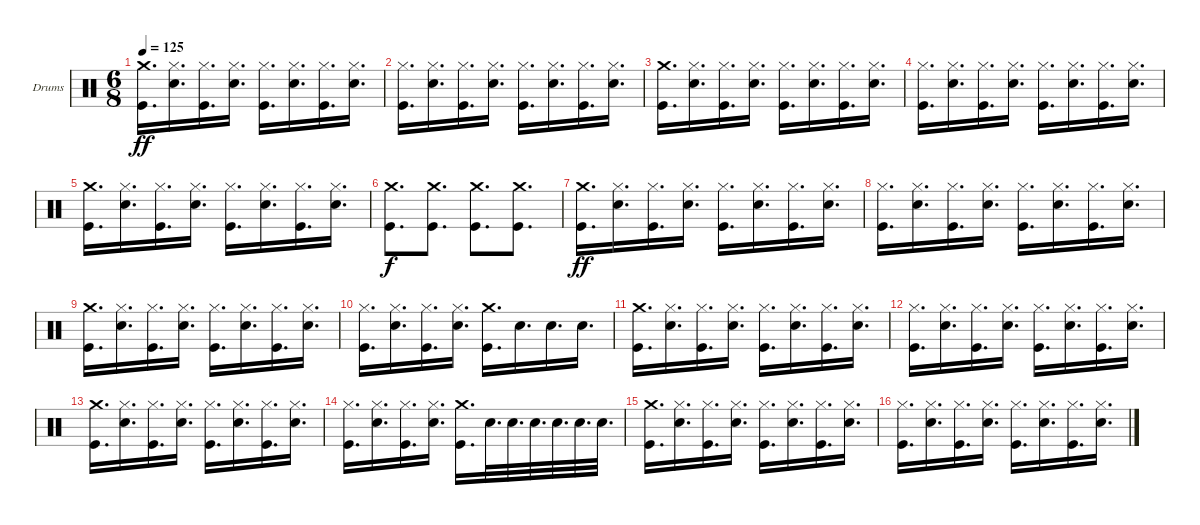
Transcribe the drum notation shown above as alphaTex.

\defaultSystemsLayout 4
\bracketExtendMode groupsimilarinstruments
\firstSystemTrackNameOrientation horizontal
\otherSystemsTrackNameOrientation horizontal
\track ("Drumkit" "Drums") {instrument percussion}
\staff {score}
\articulation defaults
\ts (6 8)
\tempo 125
\clef neutral
\ks c
("Kick (hit)" "Crash medium (hit)").16{d dy ff} ("Snare (hit) 2" "Hi-Hat (closed)").16{d} ("Kick (hit)" "Hi-Hat (closed)").16{d} ("Snare (hit) 2" "Hi-Hat (closed)").16{d} ("Kick (hit)" "Hi-Hat (closed)").16{d} ("Snare (hit) 2" "Hi-Hat (closed)").16{d} ("Kick (hit)" "Hi-Hat (closed)").16{d} ("Snare (hit) 2" "Hi-Hat (closed)").16{d} |
("Kick (hit)" "Hi-Hat (closed)").16{d} ("Snare (hit) 2" "Hi-Hat (closed)").16{d} ("Kick (hit)" "Hi-Hat (closed)").16{d} ("Snare (hit) 2" "Hi-Hat (closed)").16{d} ("Kick (hit)" "Hi-Hat (closed)").16{d} ("Snare (hit) 2" "Hi-Hat (closed)").16{d} ("Kick (hit)" "Hi-Hat (closed)").16{d} ("Snare (hit) 2" "Hi-Hat (closed)").16{d} |
("Kick (hit)" "Crash medium (hit)").16{d} ("Snare (hit) 2" "Hi-Hat (closed)").16{d} ("Kick (hit)" "Hi-Hat (closed)").16{d} ("Snare (hit) 2" "Hi-Hat (closed)").16{d} ("Kick (hit)" "Hi-Hat (closed)").16{d} ("Snare (hit) 2" "Hi-Hat (closed)").16{d} ("Kick (hit)" "Hi-Hat (closed)").16{d} ("Snare (hit) 2" "Hi-Hat (closed)").16{d} |
("Kick (hit)" "Hi-Hat (closed)").16{d} ("Snare (hit) 2" "Hi-Hat (closed)").16{d} ("Kick (hit)" "Hi-Hat (closed)").16{d} ("Snare (hit) 2" "Hi-Hat (closed)").16{d} ("Kick (hit)" "Hi-Hat (closed)").16{d} ("Snare (hit) 2" "Hi-Hat (closed)").16{d} ("Kick (hit)" "Hi-Hat (closed)").16{d} ("Snare (hit) 2" "Hi-Hat (closed)").16{d} |
("Kick (hit)" "Crash medium (hit)").16{d} ("Snare (hit) 2" "Hi-Hat (closed)").16{d} ("Kick (hit)" "Hi-Hat (closed)").16{d} ("Snare (hit) 2" "Hi-Hat (closed)").16{d} ("Kick (hit)" "Hi-Hat (closed)").16{d} ("Snare (hit) 2" "Hi-Hat (closed)").16{d} ("Kick (hit)" "Hi-Hat (closed)").16{d} ("Snare (hit) 2" "Hi-Hat (closed)").16{d} |
("Kick (hit)" "Crash medium (hit)").8{d dy f} ("Kick (hit)" "Crash medium (hit)").8{d} ("Kick (hit)" "Crash medium (hit)").8{d} ("Kick (hit)" "Crash medium (hit)").8{d} |
("Kick (hit)" "Crash medium (hit)").16{d dy ff} ("Snare (hit) 2" "Hi-Hat (closed)").16{d} ("Kick (hit)" "Hi-Hat (closed)").16{d} ("Snare (hit) 2" "Hi-Hat (closed)").16{d} ("Kick (hit)" "Hi-Hat (closed)").16{d} ("Snare (hit) 2" "Hi-Hat (closed)").16{d} ("Kick (hit)" "Hi-Hat (closed)").16{d} ("Snare (hit) 2" "Hi-Hat (closed)").16{d} |
("Kick (hit)" "Hi-Hat (closed)").16{d} ("Snare (hit) 2" "Hi-Hat (closed)").16{d} ("Kick (hit)" "Hi-Hat (closed)").16{d} ("Snare (hit) 2" "Hi-Hat (closed)").16{d} ("Kick (hit)" "Hi-Hat (closed)").16{d} ("Snare (hit) 2" "Hi-Hat (closed)").16{d} ("Kick (hit)" "Hi-Hat (closed)").16{d} ("Snare (hit) 2" "Hi-Hat (closed)").16{d} |
("Kick (hit)" "Crash medium (hit)").16{d} ("Snare (hit) 2" "Hi-Hat (closed)").16{d} ("Kick (hit)" "Hi-Hat (closed)").16{d} ("Snare (hit) 2" "Hi-Hat (closed)").16{d} ("Kick (hit)" "Hi-Hat (closed)").16{d} ("Snare (hit) 2" "Hi-Hat (closed)").16{d} ("Kick (hit)" "Hi-Hat (closed)").16{d} ("Snare (hit) 2" "Hi-Hat (closed)").16{d} |
("Kick (hit)" "Hi-Hat (closed)").16{d} ("Snare (hit) 2" "Hi-Hat (closed)").16{d} ("Kick (hit)" "Hi-Hat (closed)").16{d} ("Snare (hit) 2" "Hi-Hat (closed)").16{d} ("Kick (hit)" "Crash medium (hit)").16{d} "Snare (hit) 2".16{d} "Snare (hit) 2".16{d} "Snare (hit) 2".16{d} |
("Kick (hit)" "Crash medium (hit)").16{d} ("Snare (hit) 2" "Hi-Hat (closed)").16{d} ("Kick (hit)" "Hi-Hat (closed)").16{d} ("Snare (hit) 2" "Hi-Hat (closed)").16{d} ("Kick (hit)" "Hi-Hat (closed)").16{d} ("Snare (hit) 2" "Hi-Hat (closed)").16{d} ("Kick (hit)" "Hi-Hat (closed)").16{d} ("Snare (hit) 2" "Hi-Hat (closed)").16{d} |
("Kick (hit)" "Hi-Hat (closed)").16{d} ("Snare (hit) 2" "Hi-Hat (closed)").16{d} ("Kick (hit)" "Hi-Hat (closed)").16{d} ("Snare (hit) 2" "Hi-Hat (closed)").16{d} ("Kick (hit)" "Hi-Hat (closed)").16{d} ("Snare (hit) 2" "Hi-Hat (closed)").16{d} ("Kick (hit)" "Hi-Hat (closed)").16{d} ("Snare (hit) 2" "Hi-Hat (closed)").16{d} |
("Kick (hit)" "Crash medium (hit)").16{d} ("Snare (hit) 2" "Hi-Hat (closed)").16{d} ("Kick (hit)" "Hi-Hat (closed)").16{d} ("Snare (hit) 2" "Hi-Hat (closed)").16{d} ("Kick (hit)" "Hi-Hat (closed)").16{d} ("Snare (hit) 2" "Hi-Hat (closed)").16{d} ("Kick (hit)" "Hi-Hat (closed)").16{d} ("Snare (hit) 2" "Hi-Hat (closed)").16{d} |
("Kick (hit)" "Hi-Hat (closed)").16{d} ("Snare (hit) 2" "Hi-Hat (closed)").16{d} ("Kick (hit)" "Hi-Hat (closed)").16{d} ("Snare (hit) 2" "Hi-Hat (closed)").16{d} ("Kick (hit)" "Crash medium (hit)").16{d} "Snare (hit) 2".32{d} "Snare (hit) 2".32{d} "Snare (hit) 2".32{d} "Snare (hit) 2".32{d} "Snare (hit) 2".32{d} "Snare (hit) 2".32{d} |
("Kick (hit)" "Crash medium (hit)").16{d} ("Snare (hit) 2" "Hi-Hat (closed)").16{d} ("Kick (hit)" "Hi-Hat (closed)").16{d} ("Snare (hit) 2" "Hi-Hat (closed)").16{d} ("Kick (hit)" "Hi-Hat (closed)").16{d} ("Snare (hit) 2" "Hi-Hat (closed)").16{d} ("Kick (hit)" "Hi-Hat (closed)").16{d} ("Snare (hit) 2" "Hi-Hat (closed)").16{d} |
("Kick (hit)" "Hi-Hat (closed)").16{d} ("Snare (hit) 2" "Hi-Hat (closed)").16{d} ("Kick (hit)" "Hi-Hat (closed)").16{d} ("Snare (hit) 2" "Hi-Hat (closed)").16{d} ("Kick (hit)" "Hi-Hat (closed)").16{d} ("Snare (hit) 2" "Hi-Hat (closed)").16{d} ("Kick (hit)" "Hi-Hat (closed)").16{d} ("Snare (hit) 2" "Hi-Hat (closed)").16{d}
